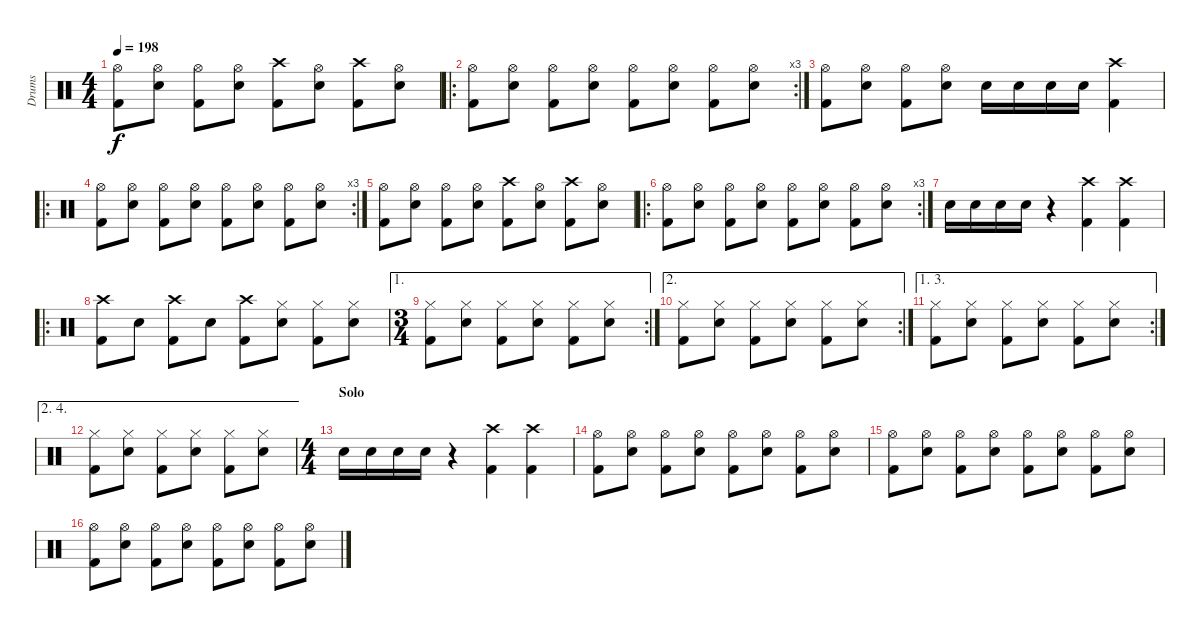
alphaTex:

\track ("Drums" "Drums") {instrument percussion}
\staff {score}
\articulation defaults
\ts (4 4)
\tempo 198
\clef neutral
\ks c
("Hi-Hat (open)" "Kick (hit) 2").8{dy f} ("Hi-Hat (open)" "Snare (hit) 2").8 ("Hi-Hat (open)" "Kick (hit) 2").8 ("Hi-Hat (open)" "Snare (hit) 2").8 ("Crash high (hit)" "Kick (hit) 2").8 ("Hi-Hat (open)" "Snare (hit) 2").8 ("Crash high (hit)" "Kick (hit) 2").8 ("Hi-Hat (open)" "Snare (hit) 2").8 |
\ro
\rc 3
("Hi-Hat (open)" "Kick (hit) 2").8 ("Hi-Hat (open)" "Snare (hit) 2").8 ("Hi-Hat (open)" "Kick (hit) 2").8 ("Hi-Hat (open)" "Snare (hit) 2").8 ("Hi-Hat (open)" "Kick (hit) 2").8 ("Hi-Hat (open)" "Snare (hit) 2").8 ("Hi-Hat (open)" "Kick (hit) 2").8 ("Hi-Hat (open)" "Snare (hit) 2").8 |
("Hi-Hat (open)" "Kick (hit) 2").8 ("Hi-Hat (open)" "Snare (hit) 2").8 ("Hi-Hat (open)" "Kick (hit) 2").8 ("Hi-Hat (open)" "Snare (hit) 2").8 "Snare (hit) 2".16 "Snare (hit) 2".16 "Snare (hit) 2".16 "Snare (hit) 2".16 ("Crash high (hit)" "Kick (hit) 2").4 |
\ro
\rc 3
("Hi-Hat (open)" "Kick (hit) 2").8 ("Hi-Hat (open)" "Snare (hit) 2").8 ("Hi-Hat (open)" "Kick (hit) 2").8 ("Hi-Hat (open)" "Snare (hit) 2").8 ("Hi-Hat (open)" "Kick (hit) 2").8 ("Hi-Hat (open)" "Snare (hit) 2").8 ("Hi-Hat (open)" "Kick (hit) 2").8 ("Hi-Hat (open)" "Snare (hit) 2").8 |
("Hi-Hat (open)" "Kick (hit) 2").8 ("Hi-Hat (open)" "Snare (hit) 2").8 ("Hi-Hat (open)" "Kick (hit) 2").8 ("Hi-Hat (open)" "Snare (hit) 2").8 ("Crash high (hit)" "Kick (hit) 2").8 ("Hi-Hat (open)" "Snare (hit) 2").8 ("Crash high (hit)" "Kick (hit) 2").8 ("Hi-Hat (open)" "Snare (hit) 2").8 |
\ro
\rc 3
("Hi-Hat (open)" "Kick (hit) 2").8 ("Hi-Hat (open)" "Snare (hit) 2").8 ("Hi-Hat (open)" "Kick (hit) 2").8 ("Hi-Hat (open)" "Snare (hit) 2").8 ("Hi-Hat (open)" "Kick (hit) 2").8 ("Hi-Hat (open)" "Snare (hit) 2").8 ("Hi-Hat (open)" "Kick (hit) 2").8 ("Hi-Hat (open)" "Snare (hit) 2").8 |
"Snare (hit) 2".16 "Snare (hit) 2".16 "Snare (hit) 2".16 "Snare (hit) 2".16 r.4 ("Crash high (hit)" "Kick (hit) 2").4 ("Crash high (hit)" "Kick (hit) 2").4 |
\ro
("Crash high (hit)" "Kick (hit) 2").8 "Snare (hit) 2".8 ("Crash high (hit)" "Kick (hit) 2").8 "Snare (hit) 2".8 ("Crash high (hit)" "Kick (hit) 2").8 ("Hi-Hat (closed)" "Snare (hit) 2").8 ("Hi-Hat (closed)" "Kick (hit) 2").8 ("Hi-Hat (closed)" "Snare (hit) 2").8 |
\ae 1
\rc 2
\ts (3 4)
("Hi-Hat (closed)" "Kick (hit) 2").8 ("Hi-Hat (closed)" "Snare (hit) 2").8 ("Hi-Hat (closed)" "Kick (hit) 2").8 ("Hi-Hat (closed)" "Snare (hit) 2").8 ("Hi-Hat (closed)" "Kick (hit) 2").8 ("Hi-Hat (closed)" "Snare (hit) 2").8 |
\ae 2
\rc 2
("Hi-Hat (closed)" "Kick (hit) 2").8 ("Hi-Hat (closed)" "Snare (hit) 2").8 ("Hi-Hat (closed)" "Kick (hit) 2").8 ("Hi-Hat (closed)" "Snare (hit) 2").8 ("Hi-Hat (closed)" "Kick (hit) 2").8 ("Hi-Hat (closed)" "Snare (hit) 2").8 |
\ae (1 3)
\rc 2
("Hi-Hat (closed)" "Kick (hit) 2").8 ("Hi-Hat (closed)" "Snare (hit) 2").8 ("Hi-Hat (closed)" "Kick (hit) 2").8 ("Hi-Hat (closed)" "Snare (hit) 2").8 ("Hi-Hat (closed)" "Kick (hit) 2").8 ("Hi-Hat (closed)" "Snare (hit) 2").8 |
\ae (2 4)
("Hi-Hat (closed)" "Kick (hit) 2").8 ("Hi-Hat (closed)" "Snare (hit) 2").8 ("Hi-Hat (closed)" "Kick (hit) 2").8 ("Hi-Hat (closed)" "Snare (hit) 2").8 ("Hi-Hat (closed)" "Kick (hit) 2").8 ("Hi-Hat (closed)" "Snare (hit) 2").8 |
\ts (4 4)
\section ("" "Solo")
"Snare (hit) 2".16 "Snare (hit) 2".16 "Snare (hit) 2".16 "Snare (hit) 2".16 r.4 ("Crash high (hit)" "Kick (hit) 2").4 ("Crash high (hit)" "Kick (hit) 2").4 |
("Hi-Hat (open)" "Kick (hit) 2").8 ("Hi-Hat (open)" "Snare (hit) 2").8 ("Hi-Hat (open)" "Kick (hit) 2").8 ("Hi-Hat (open)" "Snare (hit) 2").8 ("Hi-Hat (open)" "Kick (hit) 2").8 ("Hi-Hat (open)" "Snare (hit) 2").8 ("Hi-Hat (open)" "Kick (hit) 2").8 ("Hi-Hat (open)" "Snare (hit) 2").8 |
("Hi-Hat (open)" "Kick (hit) 2").8 ("Hi-Hat (open)" "Snare (hit) 2").8 ("Hi-Hat (open)" "Kick (hit) 2").8 ("Hi-Hat (open)" "Snare (hit) 2").8 ("Hi-Hat (open)" "Kick (hit) 2").8 ("Hi-Hat (open)" "Snare (hit) 2").8 ("Hi-Hat (open)" "Kick (hit) 2").8 ("Hi-Hat (open)" "Snare (hit) 2").8 |
("Hi-Hat (open)" "Kick (hit) 2").8 ("Hi-Hat (open)" "Snare (hit) 2").8 ("Hi-Hat (open)" "Kick (hit) 2").8 ("Hi-Hat (open)" "Snare (hit) 2").8 ("Hi-Hat (open)" "Kick (hit) 2").8 ("Hi-Hat (open)" "Snare (hit) 2").8 ("Hi-Hat (open)" "Kick (hit) 2").8 ("Hi-Hat (open)" "Snare (hit) 2").8
